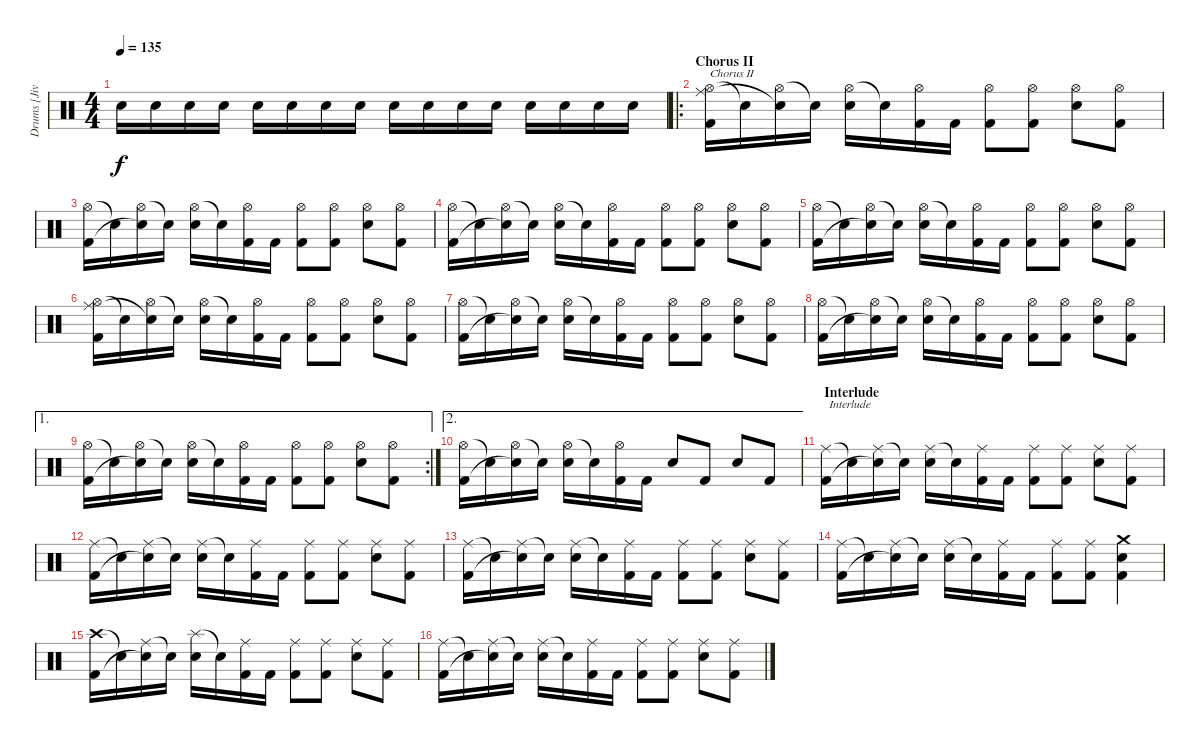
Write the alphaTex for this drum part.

\track ("Drums [Jivarp]" "Drums [Jiv") {instrument percussion}
\staff {score}
\articulation defaults
\ts (4 4)
\tempo 135
\clef neutral
\ks c "Electric Snare (hit)".16{dy f} "Electric Snare (hit)".16 "Electric Snare (hit)".16 "Electric Snare (hit)".16 "Electric Snare (hit)".16 "Electric Snare (hit)".16 "Electric Snare (hit)".16 "Electric Snare (hit)".16 "Electric Snare (hit)".16 "Electric Snare (hit)".16 "Electric Snare (hit)".16 "Electric Snare (hit)".16 "Electric Snare (hit)".16 "Electric Snare (hit)".16 "Electric Snare (hit)".16 "Electric Snare (hit)".16
|
\ro
\section ("" "Chorus II")
("Hi-Hat (open)" "Ride (middle)" "Kick (hit) 2").16{txt "Chorus II"} "Snare (hit)"{t}.16 ("Hi-Hat (open)" "Snare (hit)"{t}).16 "Snare (hit)"{t}.16 ("Hi-Hat (open)" "Electric Snare (hit)").16 "Snare (hit)"{t}.16 ("Hi-Hat (open)" "Kick (hit) 2").16 "Kick (hit) 2".16 ("Hi-Hat (open)" "Kick (hit) 2").8 ("Hi-Hat (open)" "Kick (hit) 2").8 ("Hi-Hat (open)" "Electric Snare (hit)").8 ("Hi-Hat (open)" "Kick (hit) 2").8 |
("Hi-Hat (open)" "Kick (hit) 2").16 "Snare (hit)"{t}.16 ("Hi-Hat (open)" "Snare (hit)"{t}).16 "Snare (hit)"{t}.16 ("Hi-Hat (open)" "Electric Snare (hit)").16 "Snare (hit)"{t}.16 ("Hi-Hat (open)" "Kick (hit) 2").16 "Kick (hit) 2".16 ("Hi-Hat (open)" "Kick (hit) 2").8 ("Hi-Hat (open)" "Kick (hit) 2").8 ("Hi-Hat (open)" "Electric Snare (hit)").8 ("Hi-Hat (open)" "Kick (hit) 2").8 |
("Hi-Hat (open)" "Kick (hit) 2").16 "Snare (hit)"{t}.16 ("Hi-Hat (open)" "Snare (hit)"{t}).16 "Snare (hit)"{t}.16 ("Hi-Hat (open)" "Electric Snare (hit)").16 "Snare (hit)"{t}.16 ("Hi-Hat (open)" "Kick (hit) 2").16 "Kick (hit) 2".16 ("Hi-Hat (open)" "Kick (hit) 2").8 ("Hi-Hat (open)" "Kick (hit) 2").8 ("Hi-Hat (open)" "Electric Snare (hit)").8 ("Hi-Hat (open)" "Kick (hit) 2").8 |
("Hi-Hat (open)" "Kick (hit) 2").16 "Snare (hit)"{t}.16 ("Hi-Hat (open)" "Snare (hit)"{t}).16 "Snare (hit)"{t}.16 ("Hi-Hat (open)" "Electric Snare (hit)").16 "Snare (hit)"{t}.16 ("Hi-Hat (open)" "Kick (hit) 2").16 "Kick (hit) 2".16 ("Hi-Hat (open)" "Kick (hit) 2").8 ("Hi-Hat (open)" "Kick (hit) 2").8 ("Hi-Hat (open)" "Electric Snare (hit)").8 ("Hi-Hat (open)" "Kick (hit) 2").8 |
("Hi-Hat (open)" "Ride (middle)" "Kick (hit) 2").16 "Snare (hit)"{t}.16 ("Hi-Hat (open)" "Snare (hit)"{t}).16 "Snare (hit)"{t}.16 ("Hi-Hat (open)" "Electric Snare (hit)").16 "Snare (hit)"{t}.16 ("Hi-Hat (open)" "Kick (hit) 2").16 "Kick (hit) 2".16 ("Hi-Hat (open)" "Kick (hit) 2").8 ("Hi-Hat (open)" "Kick (hit) 2").8 ("Hi-Hat (open)" "Electric Snare (hit)").8 ("Hi-Hat (open)" "Kick (hit) 2").8 |
("Hi-Hat (open)" "Kick (hit) 2").16 "Snare (hit)"{t}.16 ("Hi-Hat (open)" "Snare (hit)"{t}).16 "Snare (hit)"{t}.16 ("Hi-Hat (open)" "Electric Snare (hit)").16 "Snare (hit)"{t}.16 ("Hi-Hat (open)" "Kick (hit) 2").16 "Kick (hit) 2".16 ("Hi-Hat (open)" "Kick (hit) 2").8 ("Hi-Hat (open)" "Kick (hit) 2").8 ("Hi-Hat (open)" "Electric Snare (hit)").8 ("Hi-Hat (open)" "Kick (hit) 2").8 |
("Hi-Hat (open)" "Kick (hit) 2").16 "Snare (hit)"{t}.16 ("Hi-Hat (open)" "Snare (hit)"{t}).16 "Snare (hit)"{t}.16 ("Hi-Hat (open)" "Electric Snare (hit)").16 "Snare (hit)"{t}.16 ("Hi-Hat (open)" "Kick (hit) 2").16 "Kick (hit) 2".16 ("Hi-Hat (open)" "Kick (hit) 2").8 ("Hi-Hat (open)" "Kick (hit) 2").8 ("Hi-Hat (open)" "Electric Snare (hit)").8 ("Hi-Hat (open)" "Kick (hit) 2").8 |
\ae 1
\rc 2
("Hi-Hat (open)" "Kick (hit) 2").16 "Snare (hit)"{t}.16 ("Hi-Hat (open)" "Snare (hit)"{t}).16 "Snare (hit)"{t}.16 ("Hi-Hat (open)" "Electric Snare (hit)").16 "Snare (hit)"{t}.16 ("Hi-Hat (open)" "Kick (hit) 2").16 "Kick (hit) 2".16 ("Hi-Hat (open)" "Kick (hit) 2").8 ("Hi-Hat (open)" "Kick (hit) 2").8 ("Hi-Hat (open)" "Electric Snare (hit)").8 ("Hi-Hat (open)" "Kick (hit) 2").8 |
\ae 2
("Hi-Hat (open)" "Kick (hit) 2").16 "Snare (hit)"{t}.16 ("Hi-Hat (open)" "Snare (hit)"{t}).16 "Snare (hit)"{t}.16 ("Hi-Hat (open)" "Electric Snare (hit)").16 "Snare (hit)"{t}.16 ("Hi-Hat (open)" "Kick (hit) 2").16 "Kick (hit) 2".16 "Electric Snare (hit)".8 "Kick (hit) 2".8 "Electric Snare (hit)".8 "Kick (hit) 2".8 |
\section ("" " Interlude")
("Ride (middle)" "Kick (hit) 2").16{txt " Interlude"} "Snare (hit)"{t}.16 ("Ride (middle)" "Snare (hit)"{t}).16 "Snare (hit)"{t}.16 ("Ride (middle)" "Electric Snare (hit)").16 "Snare (hit)"{t}.16 ("Ride (middle)" "Kick (hit) 2").16 "Kick (hit) 2".16 ("Ride (middle)" "Kick (hit) 2").8 ("Ride (middle)" "Kick (hit) 2").8 ("Ride (middle)" "Electric Snare (hit)").8 ("Ride (middle)" "Kick (hit) 2").8 |
("Ride (middle)" "Kick (hit) 2").16 "Snare (hit)"{t}.16 ("Ride (middle)" "Snare (hit)"{t}).16 "Snare (hit)"{t}.16 ("Ride (middle)" "Electric Snare (hit)").16 "Snare (hit)"{t}.16 ("Ride (middle)" "Kick (hit) 2").16 "Kick (hit) 2".16 ("Ride (middle)" "Kick (hit) 2").8 ("Ride (middle)" "Kick (hit) 2").8 ("Ride (middle)" "Electric Snare (hit)").8 ("Ride (middle)" "Kick (hit) 2").8 |
("Ride (middle)" "Kick (hit) 2").16 "Snare (hit)"{t}.16 ("Ride (middle)" "Snare (hit)"{t}).16 "Snare (hit)"{t}.16 ("Ride (middle)" "Electric Snare (hit)").16 "Snare (hit)"{t}.16 ("Ride (middle)" "Kick (hit) 2").16 "Kick (hit) 2".16 ("Ride (middle)" "Kick (hit) 2").8 ("Ride (middle)" "Kick (hit) 2").8 ("Ride (middle)" "Electric Snare (hit)").8 ("Ride (middle)" "Kick (hit) 2").8 |
("Ride (middle)" "Kick (hit) 2").16 "Snare (hit)"{t}.16 ("Ride (middle)" "Snare (hit)"{t}).16 "Snare (hit)"{t}.16 ("Ride (middle)" "Electric Snare (hit)").16 "Snare (hit)"{t}.16 ("Ride (middle)" "Kick (hit) 2").16 "Kick (hit) 2".16 ("Ride (middle)" "Kick (hit) 2").8 ("Ride (middle)" "Kick (hit) 2").8 ("Crash medium (hit)" "Electric Snare (hit)" "Kick (hit) 2").4 |
("Crash high (hit)" "Kick (hit) 2").16 "Snare (hit)"{t}.16 ("Ride (middle)" "Snare (hit)"{t}).16 "Snare (hit)"{t}.16 ("Splash (hit)" "Electric Snare (hit)").16 "Snare (hit)"{t}.16 ("Ride (middle)" "Kick (hit) 2").16 "Kick (hit) 2".16 ("Ride (middle)" "Kick (hit) 2").8 ("Ride (middle)" "Kick (hit) 2").8 ("Ride (middle)" "Electric Snare (hit)").8 ("Ride (middle)" "Kick (hit) 2").8 |
("Ride (middle)" "Kick (hit) 2").16 "Snare (hit)"{t}.16 ("Ride (middle)" "Snare (hit)"{t}).16 "Snare (hit)"{t}.16 ("Ride (middle)" "Electric Snare (hit)").16 "Snare (hit)"{t}.16 ("Ride (middle)" "Kick (hit) 2").16 "Kick (hit) 2".16 ("Ride (middle)" "Kick (hit) 2").8 ("Ride (middle)" "Kick (hit) 2").8 ("Ride (middle)" "Electric Snare (hit)").8 ("Ride (middle)" "Kick (hit) 2").8
